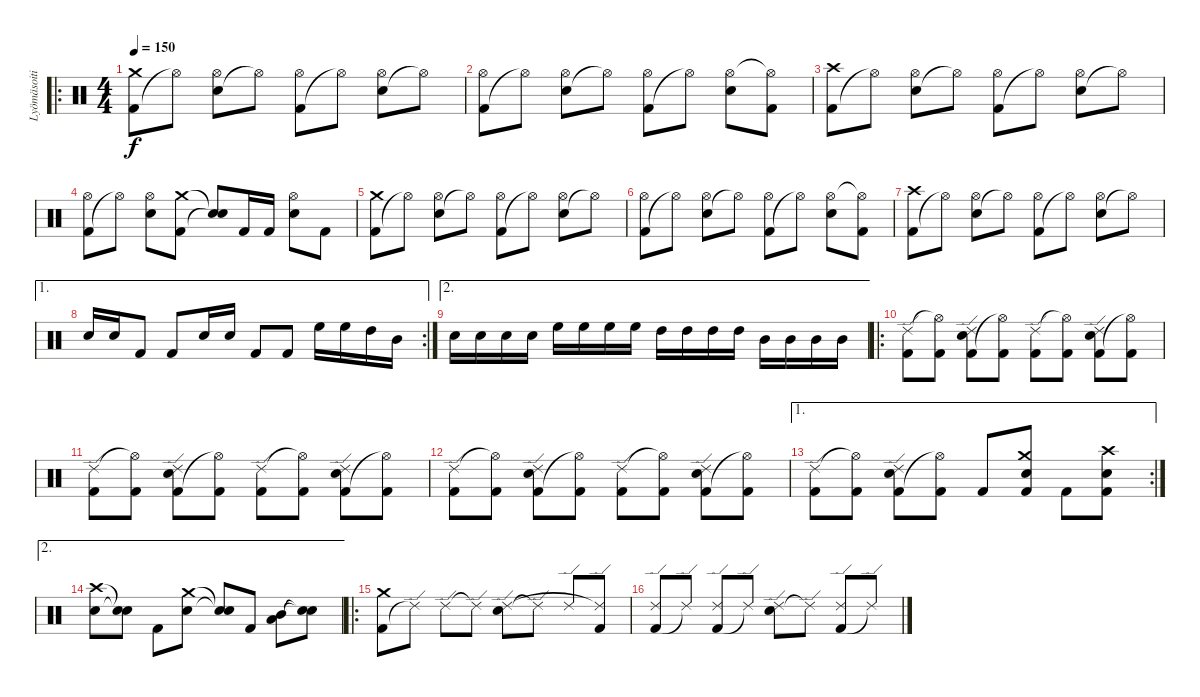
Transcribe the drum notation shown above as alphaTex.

\track ("Lyömäsoitin" "Lyömäsoiti") {instrument percussion}
\staff {score}
\articulation defaults
\ro
\ts (4 4)
\tempo 150
\clef neutral
\ks c
("Kick (hit) 2" "Crash medium (hit)").8{dy f} "Hi-Hat (open)"{t}.8 ("Electric Snare (hit)" "Hi-Hat (open)").8 "Hi-Hat (open)"{t}.8 ("Kick (hit) 2" "Hi-Hat (open)").8 "Hi-Hat (open)"{t}.8 ("Electric Snare (hit)" "Hi-Hat (open)").8 "Hi-Hat (open)"{t}.8 |
("Kick (hit) 2" "Hi-Hat (open)").8 "Hi-Hat (open)"{t}.8 ("Electric Snare (hit)" "Hi-Hat (open)").8 "Hi-Hat (open)"{t}.8 ("Kick (hit) 2" "Hi-Hat (open)").8 "Hi-Hat (open)"{t}.8 ("Electric Snare (hit)" "Hi-Hat (open)").8 ("Kick (hit) 2" "Hi-Hat (open)"{t}).8 |
("Kick (hit) 2" "Crash high (hit)").8 "Hi-Hat (open)"{t}.8 ("Electric Snare (hit)" "Hi-Hat (open)").8 "Hi-Hat (open)"{t}.8 ("Kick (hit) 2" "Hi-Hat (open)").8 "Hi-Hat (open)"{t}.8 ("Electric Snare (hit)" "Hi-Hat (open)").8 "Hi-Hat (open)"{t}.8 |
("Kick (hit) 2" "Hi-Hat (open)").8 "Hi-Hat (open)"{t}.8 ("Electric Snare (hit)" "Hi-Hat (open)").8 ("Kick (hit) 2" "Crash medium (hit)").8 ("Snare (hit)"{t} "Snare (hit)"{t}).8 "Kick (hit) 2".16 "Kick (hit) 2".16 ("Electric Snare (hit)" "Hi-Hat (open)").8 "Kick (hit) 2".8 |
("Kick (hit) 2" "Crash medium (hit)").8 "Hi-Hat (open)"{t}.8 ("Electric Snare (hit)" "Hi-Hat (open)").8 "Hi-Hat (open)"{t}.8 ("Kick (hit) 2" "Hi-Hat (open)").8 "Hi-Hat (open)"{t}.8 ("Electric Snare (hit)" "Hi-Hat (open)").8 "Hi-Hat (open)"{t}.8 |
("Kick (hit) 2" "Hi-Hat (open)").8 "Hi-Hat (open)"{t}.8 ("Electric Snare (hit)" "Hi-Hat (open)").8 "Hi-Hat (open)"{t}.8 ("Kick (hit) 2" "Hi-Hat (open)").8 "Hi-Hat (open)"{t}.8 ("Electric Snare (hit)" "Hi-Hat (open)").8 ("Kick (hit) 2" "Hi-Hat (open)"{t}).8 |
("Kick (hit) 2" "Crash high (hit)").8 "Hi-Hat (open)"{t}.8 ("Electric Snare (hit)" "Hi-Hat (open)").8 "Hi-Hat (open)"{t}.8 ("Kick (hit) 2" "Hi-Hat (open)").8 "Hi-Hat (open)"{t}.8 ("Electric Snare (hit)" "Hi-Hat (open)").8 "Hi-Hat (open)"{t}.8 |
\ae 1
\rc 2 "Electric Snare (hit)".16 "Electric Snare (hit)".16 "Kick (hit) 2".8 "Kick (hit) 2".8 "Electric Snare (hit)".16 "Electric Snare (hit)".16 "Kick (hit) 2".8 "Kick (hit) 2".8 "High Floor Tom (hit)".16 "High Floor Tom (hit)".16 "High Tom (hit)".16 "Mid Tom (hit)".16
|
\ae 2 "Electric Snare (hit)".16 "Electric Snare (hit)".16 "Electric Snare (hit)".16 "Electric Snare (hit)".16 "High Floor Tom (hit)".16 "High Floor Tom (hit)".16 "High Floor Tom (hit)".16 "High Floor Tom (hit)".16 "High Tom (hit)".16 "High Tom (hit)".16 "High Tom (hit)".16 "High Tom (hit)".16 "Mid Tom (hit)".16 "Mid Tom (hit)".16 "Mid Tom (hit)".16 "Mid Tom (hit)".16
|
\ro
("Kick (hit) 2" "Ride (edge) 2").8 ("Kick (hit) 2" "Hi-Hat (open)"{t}).8 ("Electric Snare (hit)" "Kick (hit) 2" "Ride (edge) 2").8 ("Kick (hit) 2" "Hi-Hat (open)"{t}).8 ("Kick (hit) 2" "Ride (edge) 2").8 ("Kick (hit) 2" "Hi-Hat (open)"{t}).8 ("Electric Snare (hit)" "Kick (hit) 2" "Ride (edge) 2").8 ("Kick (hit) 2" "Hi-Hat (open)"{t}).8 |
("Kick (hit) 2" "Ride (edge) 2").8 ("Kick (hit) 2" "Hi-Hat (open)"{t}).8 ("Electric Snare (hit)" "Kick (hit) 2" "Ride (edge) 2").8 ("Kick (hit) 2" "Hi-Hat (open)"{t}).8 ("Kick (hit) 2" "Ride (edge) 2").8 ("Kick (hit) 2" "Hi-Hat (open)"{t}).8 ("Electric Snare (hit)" "Kick (hit) 2" "Ride (edge) 2").8 ("Kick (hit) 2" "Hi-Hat (open)"{t}).8 |
("Kick (hit) 2" "Ride (edge) 2").8 ("Kick (hit) 2" "Hi-Hat (open)"{t}).8 ("Electric Snare (hit)" "Kick (hit) 2" "Ride (edge) 2").8 ("Kick (hit) 2" "Hi-Hat (open)"{t}).8 ("Kick (hit) 2" "Ride (edge) 2").8 ("Kick (hit) 2" "Hi-Hat (open)"{t}).8 ("Electric Snare (hit)" "Kick (hit) 2" "Ride (edge) 2").8 ("Kick (hit) 2" "Hi-Hat (open)"{t}).8 |
\ae 1
\rc 2
("Kick (hit) 2" "Ride (edge) 2").8 ("Kick (hit) 2" "Hi-Hat (open)"{t}).8 ("Electric Snare (hit)" "Kick (hit) 2" "Ride (edge) 2").8 ("Kick (hit) 2" "Hi-Hat (open)"{t}).8 "Kick (hit) 2".8 ("Electric Snare (hit)" "Kick (hit) 2" "Crash medium (hit)").8 "Kick (hit) 2".8 ("Electric Snare (hit)" "Kick (hit) 2" "Crash high (hit)").8 |
\ae 2
("Electric Snare (hit)" "Crash high (hit)").8 ("Electric Snare (hit)"{t} "Snare (hit)"{t}).8 "Kick (hit) 2".8 ("Electric Snare (hit)" "Crash medium (hit)").8 ("Electric Snare (hit)"{t} "Snare (hit)"{t}).8 "Kick (hit) 2".8 ("Mid Tom (hit)" "Low Tom (hit)").8 ("Snare (hit)"{t} "Snare (hit)"{t}).8 |
\ro
("Kick (hit) 2" "Crash medium (hit)").8 "Ride (edge) 2"{t}.8 "Ride (edge) 2".8 "Ride (edge) 2"{t}.8 ("Electric Snare (hit)" "Ride (edge) 2").8 "Ride (edge) 2"{t}.8 "Ride (edge) 2".8 ("Kick (hit) 2" "Ride (edge) 2"{t}).8 |
("Kick (hit) 2" "Ride (edge) 2").8 "Ride (edge) 2"{t}.8 ("Kick (hit) 2" "Ride (edge) 2").8 "Ride (edge) 2"{t}.8 ("Electric Snare (hit)" "Ride (edge) 2").8 "Ride (edge) 2"{t}.8 ("Kick (hit) 2" "Ride (edge) 2").8 "Ride (edge) 2"{t}.8
